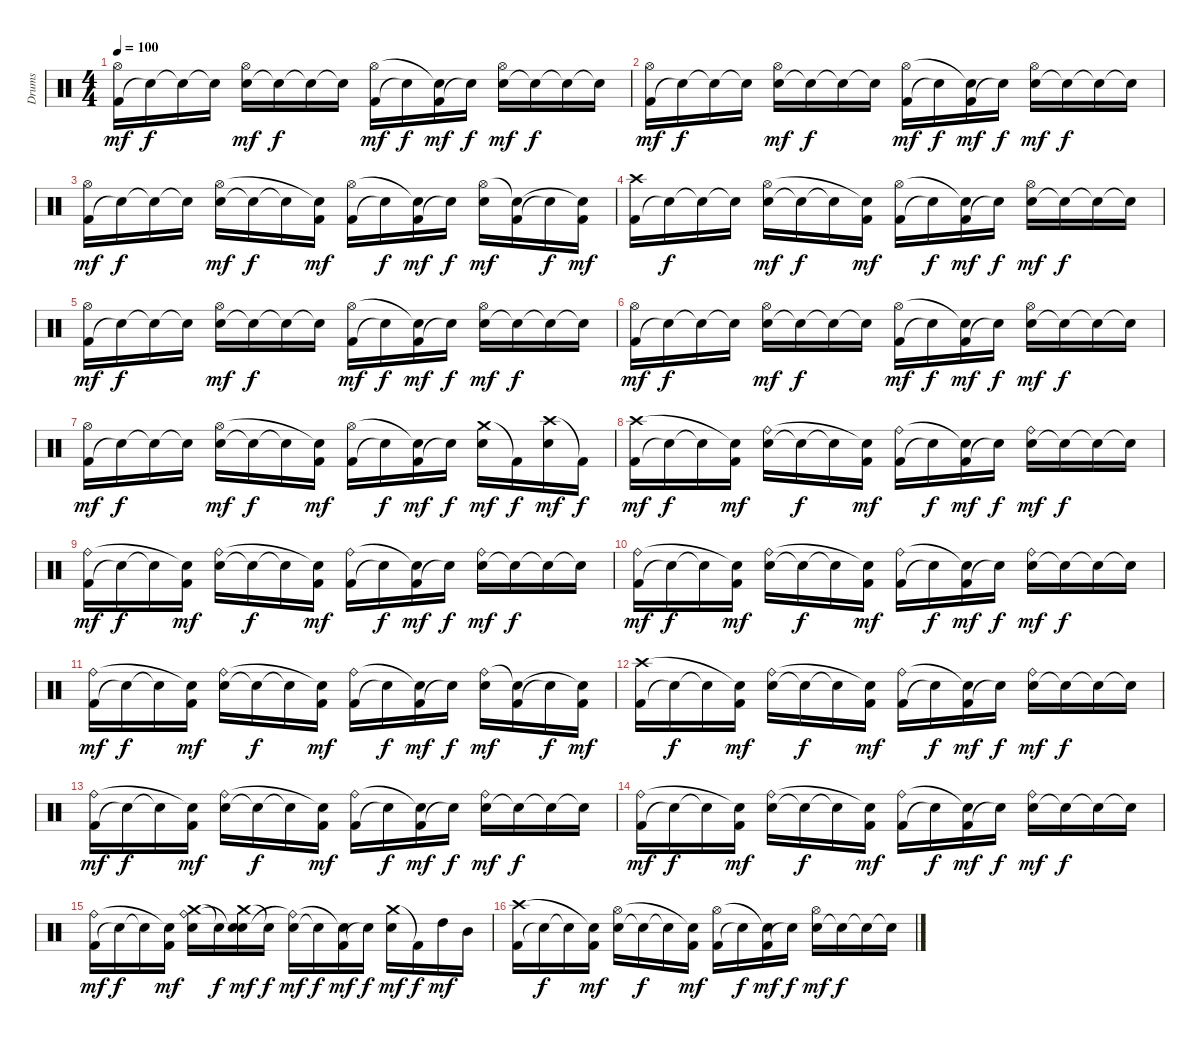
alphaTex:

\track ("Drums" "Drums") {instrument percussion}
\staff {score}
\articulation defaults
\ts (4 4)
\tempo 100
\clef neutral
\ks c
("Kick (hit) 2" "Hi-Hat (open)").16{dy mf} "Snare (hit)"{t}.16{dy f} "Snare (hit)"{t}.16 "Snare (hit)"{t}.16 ("Snare (hit) 2" "Hi-Hat (open)").16{dy mf} "Snare (hit)"{t}.16{dy f} "Snare (hit)"{t}.16 "Snare (hit)"{t}.16 ("Kick (hit) 2" "Hi-Hat (open)").16{dy mf} "Snare (hit)"{t}.16{dy f} ("Kick (hit) 2" "Snare (hit)"{t}).16{dy mf} "Snare (hit)"{t}.16{dy f} ("Snare (hit) 2" "Hi-Hat (open)").16{dy mf} "Snare (hit)"{t}.16{dy f} "Snare (hit)"{t}.16 "Snare (hit)"{t}.16 |
("Kick (hit) 2" "Hi-Hat (open)").16{dy mf} "Snare (hit)"{t}.16{dy f} "Snare (hit)"{t}.16 "Snare (hit)"{t}.16 ("Snare (hit) 2" "Hi-Hat (open)").16{dy mf} "Snare (hit)"{t}.16{dy f} "Snare (hit)"{t}.16 "Snare (hit)"{t}.16 ("Kick (hit) 2" "Hi-Hat (open)").16{dy mf} "Snare (hit)"{t}.16{dy f} ("Kick (hit) 2" "Snare (hit)"{t}).16{dy mf} "Snare (hit)"{t}.16{dy f} ("Snare (hit) 2" "Hi-Hat (open)").16{dy mf} "Snare (hit)"{t}.16{dy f} "Snare (hit)"{t}.16 "Snare (hit)"{t}.16 |
("Kick (hit) 2" "Hi-Hat (open)").16{dy mf} "Snare (hit)"{t}.16{dy f} "Snare (hit)"{t}.16 "Snare (hit)"{t}.16 ("Snare (hit) 2" "Hi-Hat (open)").16{dy mf} "Snare (hit)"{t}.16{dy f} "Snare (hit)"{t}.16 ("Kick (hit) 2" "Snare (hit)"{t}).16{dy mf} ("Kick (hit) 2" "Hi-Hat (open)").16 "Snare (hit)"{t}.16{dy f} ("Kick (hit) 2" "Snare (hit)"{t}).16{dy mf} "Snare (hit)"{t}.16{dy f} ("Snare (hit) 2" "Hi-Hat (open)").16{dy mf} ("Kick (hit) 2" "Snare (hit)"{t}).16 "Snare (hit)"{t}.16{dy f} ("Kick (hit) 2" "Snare (hit)"{t}).16{dy mf} |
("Kick (hit) 2" "Crash high (hit)").16 "Snare (hit)"{t}.16{dy f} "Snare (hit)"{t}.16 "Snare (hit)"{t}.16 ("Snare (hit) 2" "Hi-Hat (open)").16{dy mf} "Snare (hit)"{t}.16{dy f} "Snare (hit)"{t}.16 ("Kick (hit) 2" "Snare (hit)"{t}).16{dy mf} ("Kick (hit) 2" "Hi-Hat (open)").16 "Snare (hit)"{t}.16{dy f} ("Kick (hit) 2" "Snare (hit)"{t}).16{dy mf} "Snare (hit)"{t}.16{dy f} ("Snare (hit) 2" "Hi-Hat (open)").16{dy mf} "Snare (hit)"{t}.16{dy f} "Snare (hit)"{t}.16 "Snare (hit)"{t}.16 |
("Kick (hit) 2" "Hi-Hat (open)").16{dy mf} "Snare (hit)"{t}.16{dy f} "Snare (hit)"{t}.16 "Snare (hit)"{t}.16 ("Snare (hit) 2" "Hi-Hat (open)").16{dy mf} "Snare (hit)"{t}.16{dy f} "Snare (hit)"{t}.16 "Snare (hit)"{t}.16 ("Kick (hit) 2" "Hi-Hat (open)").16{dy mf} "Snare (hit)"{t}.16{dy f} ("Kick (hit) 2" "Snare (hit)"{t}).16{dy mf} "Snare (hit)"{t}.16{dy f} ("Snare (hit) 2" "Hi-Hat (open)").16{dy mf} "Snare (hit)"{t}.16{dy f} "Snare (hit)"{t}.16 "Snare (hit)"{t}.16 |
("Kick (hit) 2" "Hi-Hat (open)").16{dy mf} "Snare (hit)"{t}.16{dy f} "Snare (hit)"{t}.16 "Snare (hit)"{t}.16 ("Snare (hit) 2" "Hi-Hat (open)").16{dy mf} "Snare (hit)"{t}.16{dy f} "Snare (hit)"{t}.16 "Snare (hit)"{t}.16 ("Kick (hit) 2" "Hi-Hat (open)").16{dy mf} "Snare (hit)"{t}.16{dy f} ("Kick (hit) 2" "Snare (hit)"{t}).16{dy mf} "Snare (hit)"{t}.16{dy f} ("Snare (hit) 2" "Hi-Hat (open)").16{dy mf} "Snare (hit)"{t}.16{dy f} "Snare (hit)"{t}.16 "Snare (hit)"{t}.16 |
("Kick (hit) 2" "Hi-Hat (open)").16{dy mf} "Snare (hit)"{t}.16{dy f} "Snare (hit)"{t}.16 "Snare (hit)"{t}.16 ("Snare (hit) 2" "Hi-Hat (open)").16{dy mf} "Snare (hit)"{t}.16{dy f} "Snare (hit)"{t}.16 ("Kick (hit) 2" "Snare (hit)"{t}).16{dy mf} ("Kick (hit) 2" "Hi-Hat (open)").16 "Snare (hit)"{t}.16{dy f} ("Kick (hit) 2" "Snare (hit)"{t}).16{dy mf} "Snare (hit)"{t}.16{dy f} ("Crash medium (hit)" "Snare (hit) 2").16{dy mf} "Kick (hit) 2"{t}.16{dy f} ("Crash high (hit)" "Snare (hit) 2").16{dy mf} "Kick (hit) 2"{t}.16{dy f} |
("Kick (hit) 2" "Crash high (hit)").16{dy mf} "Snare (hit)"{t}.16{dy f} "Snare (hit)"{t}.16 ("Kick (hit) 2" "Snare (hit)"{t}).16{dy mf} ("Snare (hit) 2" "Ride (bell)").16 "Snare (hit)"{t}.16{dy f} "Snare (hit)"{t}.16 ("Kick (hit) 2" "Snare (hit)"{t}).16{dy mf} ("Kick (hit) 2" "Ride (bell)").16 "Snare (hit)"{t}.16{dy f} ("Kick (hit) 2" "Snare (hit)"{t}).16{dy mf} "Snare (hit)"{t}.16{dy f} ("Snare (hit) 2" "Ride (bell)").16{dy mf} "Snare (hit)"{t}.16{dy f} "Snare (hit)"{t}.16 "Snare (hit)"{t}.16 |
("Kick (hit) 2" "Ride (bell)").16{dy mf} "Snare (hit)"{t}.16{dy f} "Snare (hit)"{t}.16 ("Kick (hit) 2" "Snare (hit)"{t}).16{dy mf} ("Snare (hit) 2" "Ride (bell)").16 "Snare (hit)"{t}.16{dy f} "Snare (hit)"{t}.16 ("Kick (hit) 2" "Snare (hit)"{t}).16{dy mf} ("Kick (hit) 2" "Ride (bell)").16 "Snare (hit)"{t}.16{dy f} ("Kick (hit) 2" "Snare (hit)"{t}).16{dy mf} "Snare (hit)"{t}.16{dy f} ("Snare (hit) 2" "Ride (bell)").16{dy mf} "Snare (hit)"{t}.16{dy f} "Snare (hit)"{t}.16 "Snare (hit)"{t}.16 |
("Kick (hit) 2" "Ride (bell)").16{dy mf} "Snare (hit)"{t}.16{dy f} "Snare (hit)"{t}.16 ("Kick (hit) 2" "Snare (hit)"{t}).16{dy mf} ("Snare (hit) 2" "Ride (bell)").16 "Snare (hit)"{t}.16{dy f} "Snare (hit)"{t}.16 ("Kick (hit) 2" "Snare (hit)"{t}).16{dy mf} ("Kick (hit) 2" "Ride (bell)").16 "Snare (hit)"{t}.16{dy f} ("Kick (hit) 2" "Snare (hit)"{t}).16{dy mf} "Snare (hit)"{t}.16{dy f} ("Snare (hit) 2" "Ride (bell)").16{dy mf} "Snare (hit)"{t}.16{dy f} "Snare (hit)"{t}.16 "Snare (hit)"{t}.16 |
("Kick (hit) 2" "Ride (bell)").16{dy mf} "Snare (hit)"{t}.16{dy f} "Snare (hit)"{t}.16 ("Kick (hit) 2" "Snare (hit)"{t}).16{dy mf} ("Snare (hit) 2" "Ride (bell)").16 "Snare (hit)"{t}.16{dy f} "Snare (hit)"{t}.16 ("Kick (hit) 2" "Snare (hit)"{t}).16{dy mf} ("Kick (hit) 2" "Ride (bell)").16 "Snare (hit)"{t}.16{dy f} ("Kick (hit) 2" "Snare (hit)"{t}).16{dy mf} "Snare (hit)"{t}.16{dy f} ("Snare (hit) 2" "Ride (bell)").16{dy mf} ("Kick (hit) 2" "Snare (hit)"{t}).16 "Snare (hit)"{t}.16{dy f} ("Kick (hit) 2" "Snare (hit)"{t}).16{dy mf} |
("Kick (hit) 2" "Crash high (hit)").16 "Snare (hit)"{t}.16{dy f} "Snare (hit)"{t}.16 ("Kick (hit) 2" "Snare (hit)"{t}).16{dy mf} ("Snare (hit) 2" "Ride (bell)").16 "Snare (hit)"{t}.16{dy f} "Snare (hit)"{t}.16 ("Kick (hit) 2" "Snare (hit)"{t}).16{dy mf} ("Kick (hit) 2" "Ride (bell)").16 "Snare (hit)"{t}.16{dy f} ("Kick (hit) 2" "Snare (hit)"{t}).16{dy mf} "Snare (hit)"{t}.16{dy f} ("Snare (hit) 2" "Ride (bell)").16{dy mf} "Snare (hit)"{t}.16{dy f} "Snare (hit)"{t}.16 "Snare (hit)"{t}.16 |
("Kick (hit) 2" "Ride (bell)").16{dy mf} "Snare (hit)"{t}.16{dy f} "Snare (hit)"{t}.16 ("Kick (hit) 2" "Snare (hit)"{t}).16{dy mf} ("Snare (hit) 2" "Ride (bell)").16 "Snare (hit)"{t}.16{dy f} "Snare (hit)"{t}.16 ("Kick (hit) 2" "Snare (hit)"{t}).16{dy mf} ("Kick (hit) 2" "Ride (bell)").16 "Snare (hit)"{t}.16{dy f} ("Kick (hit) 2" "Snare (hit)"{t}).16{dy mf} "Snare (hit)"{t}.16{dy f} ("Snare (hit) 2" "Ride (bell)").16{dy mf} "Snare (hit)"{t}.16{dy f} "Snare (hit)"{t}.16 "Snare (hit)"{t}.16 |
("Kick (hit) 2" "Ride (bell)").16{dy mf} "Snare (hit)"{t}.16{dy f} "Snare (hit)"{t}.16 ("Kick (hit) 2" "Snare (hit)"{t}).16{dy mf} ("Snare (hit) 2" "Ride (bell)").16 "Snare (hit)"{t}.16{dy f} "Snare (hit)"{t}.16 ("Kick (hit) 2" "Snare (hit)"{t}).16{dy mf} ("Kick (hit) 2" "Ride (bell)").16 "Snare (hit)"{t}.16{dy f} ("Kick (hit) 2" "Snare (hit)"{t}).16{dy mf} "Snare (hit)"{t}.16{dy f} ("Snare (hit) 2" "Ride (bell)").16{dy mf} "Snare (hit)"{t}.16{dy f} "Snare (hit)"{t}.16 "Snare (hit)"{t}.16 |
("Kick (hit) 2" "Ride (bell)").16{dy mf} "Snare (hit)"{t}.16{dy f} "Snare (hit)"{t}.16 ("Kick (hit) 2" "Snare (hit)"{t}).16{dy mf} ("Crash medium (hit)" "Snare (hit) 2" "Ride (bell)").16 "Snare (hit)"{t}.16{dy f} ("Crash medium (hit)" "Snare (hit) 2" "Snare (hit)"{t}).16{dy mf} "Snare (hit)"{t}.16{dy f} ("Snare (hit) 2" "Ride (bell)"{t}).16{dy mf} "Snare (hit)"{t}.16{dy f} ("Kick (hit) 2" "Snare (hit)"{t}).16{dy mf} "Snare (hit)"{t}.16{dy f} ("Crash medium (hit)" "Snare (hit) 2").16{dy mf} "Kick (hit) 2"{t}.16{dy f} "High Tom (hit)".16{dy mf} "Mid Tom (hit)".16 |
("Kick (hit) 2" "Crash high (hit)").16 "Snare (hit)"{t}.16{dy f} "Snare (hit)"{t}.16 ("Kick (hit) 2" "Snare (hit)"{t}).16{dy mf} ("Snare (hit) 2" "Hi-Hat (open)").16 "Snare (hit)"{t}.16{dy f} "Snare (hit)"{t}.16 ("Kick (hit) 2" "Snare (hit)"{t}).16{dy mf} ("Kick (hit) 2" "Hi-Hat (open)").16 "Snare (hit)"{t}.16{dy f} ("Kick (hit) 2" "Snare (hit)"{t}).16{dy mf} "Snare (hit)"{t}.16{dy f} ("Snare (hit) 2" "Hi-Hat (open)").16{dy mf} "Snare (hit)"{t}.16{dy f} "Snare (hit)"{t}.16 "Snare (hit)"{t}.16
